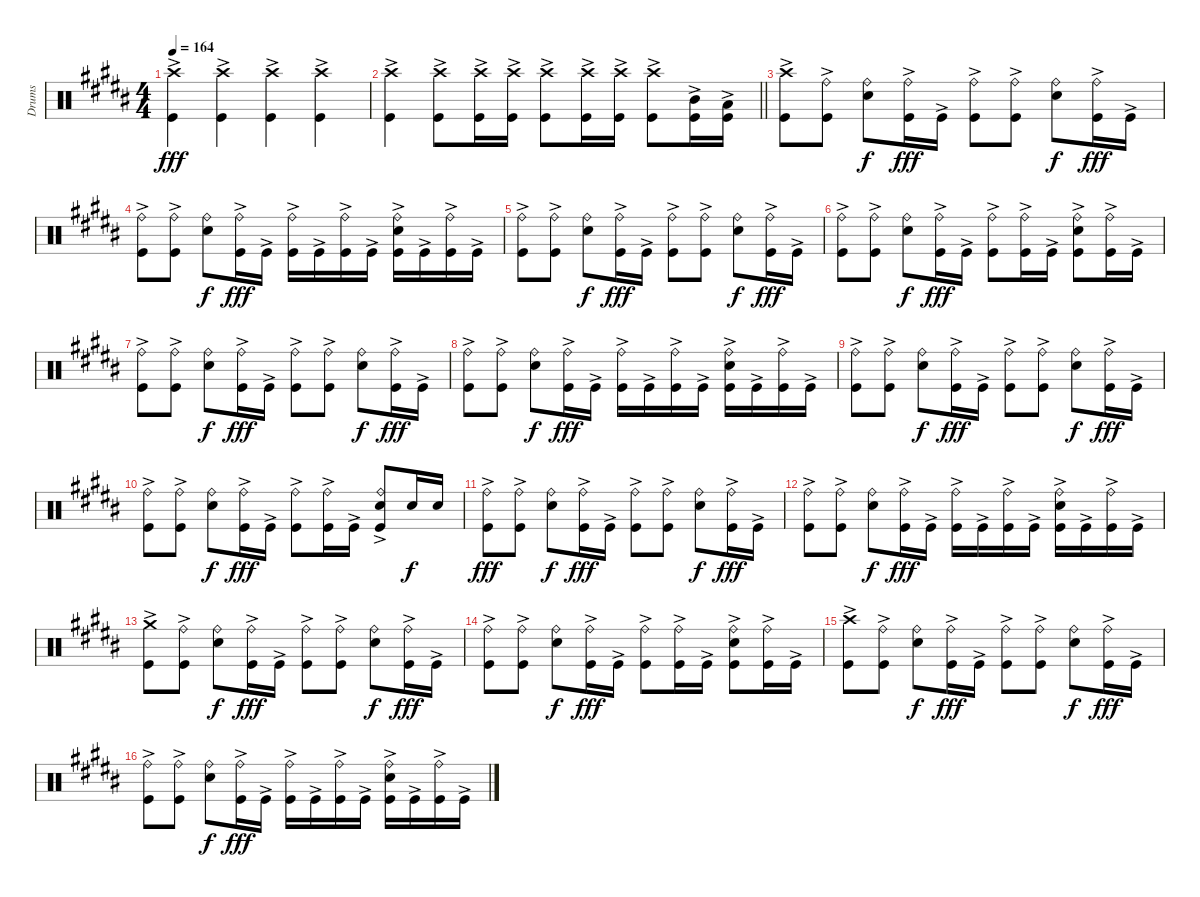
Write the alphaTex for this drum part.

\track ("Drums" "Drums") {instrument percussion}
\staff {score}
\articulation defaults
\ts (4 4)
\tempo 164
\clef neutral
\ks g#minor
("Crash high (hit)" "Kick (hit)"{ac}).4{dy fff} ("Crash high (hit)" "Kick (hit)"{ac}).4 ("Crash high (hit)" "Kick (hit)"{ac}).4 ("Crash high (hit)" "Kick (hit)"{ac}).4 |
\barLineRight lightlight
("Crash high (hit)" "Kick (hit)"{ac}).4 ("Crash high (hit)" "Kick (hit)"{ac}).8 ("Crash high (hit)" "Kick (hit)"{ac}).16 ("Crash high (hit)" "Kick (hit)"{ac}).16 ("Crash high (hit)" "Kick (hit)"{ac}).8 ("Crash high (hit)" "Kick (hit)"{ac}).16 ("Crash high (hit)" "Kick (hit)"{ac}).16 ("Crash high (hit)" "Kick (hit)"{ac}).8 ("Mid Tom (hit)"{ac} "Kick (hit)"{ac}).16 ("Low Tom (hit)"{ac} "Kick (hit)"{ac}).16 |
("Crash high (hit)" "Kick (hit)"{ac}).8 ("Ride (bell)" "Kick (hit)"{ac}).8 ("Ride (bell)" "Snare (hit) 2").8{dy f} ("Ride (bell)" "Kick (hit)"{ac}).16{dy fff} "Kick (hit)"{ac}.16 ("Ride (bell)" "Kick (hit)"{ac}).8 ("Ride (bell)" "Kick (hit)"{ac}).8 ("Ride (bell)" "Snare (hit) 2").8{dy f} ("Ride (bell)" "Kick (hit)"{ac}).16{dy fff} "Kick (hit)"{ac}.16 |
("Ride (bell)" "Kick (hit)"{ac}).8 ("Ride (bell)" "Kick (hit)"{ac}).8 ("Ride (bell)" "Snare (hit) 2").8{dy f} ("Ride (bell)" "Kick (hit)"{ac}).16{dy fff} "Kick (hit)"{ac}.16 ("Ride (bell)" "Kick (hit)"{ac}).16 "Kick (hit)"{ac}.16 ("Ride (bell)" "Kick (hit)"{ac}).16 "Kick (hit)"{ac}.16 ("Ride (bell)" "Snare (hit) 2" "Kick (hit)"{ac}).16 "Kick (hit)"{ac}.16 ("Ride (bell)" "Kick (hit)"{ac}).16 "Kick (hit)"{ac}.16 |
("Ride (bell)" "Kick (hit)"{ac}).8 ("Ride (bell)" "Kick (hit)"{ac}).8 ("Ride (bell)" "Snare (hit) 2").8{dy f} ("Ride (bell)" "Kick (hit)"{ac}).16{dy fff} "Kick (hit)"{ac}.16 ("Ride (bell)" "Kick (hit)"{ac}).8 ("Ride (bell)" "Kick (hit)"{ac}).8 ("Ride (bell)" "Snare (hit) 2").8{dy f} ("Ride (bell)" "Kick (hit)"{ac}).16{dy fff} "Kick (hit)"{ac}.16 |
("Ride (bell)" "Kick (hit)"{ac}).8 ("Ride (bell)" "Kick (hit)"{ac}).8 ("Ride (bell)" "Snare (hit) 2").8{dy f} ("Ride (bell)" "Kick (hit)"{ac}).16{dy fff} "Kick (hit)"{ac}.16 ("Ride (bell)" "Kick (hit)"{ac}).8 ("Ride (bell)" "Kick (hit)"{ac}).16 "Kick (hit)"{ac}.16 ("Ride (bell)" "Snare (hit) 2" "Kick (hit)"{ac}).8 ("Ride (bell)" "Kick (hit)"{ac}).16 "Kick (hit)"{ac}.16 |
("Ride (bell)" "Kick (hit)"{ac}).8 ("Ride (bell)" "Kick (hit)"{ac}).8 ("Ride (bell)" "Snare (hit) 2").8{dy f} ("Ride (bell)" "Kick (hit)"{ac}).16{dy fff} "Kick (hit)"{ac}.16 ("Ride (bell)" "Kick (hit)"{ac}).8 ("Ride (bell)" "Kick (hit)"{ac}).8 ("Ride (bell)" "Snare (hit) 2").8{dy f} ("Ride (bell)" "Kick (hit)"{ac}).16{dy fff} "Kick (hit)"{ac}.16 |
("Ride (bell)" "Kick (hit)"{ac}).8 ("Ride (bell)" "Kick (hit)"{ac}).8 ("Ride (bell)" "Snare (hit) 2").8{dy f} ("Ride (bell)" "Kick (hit)"{ac}).16{dy fff} "Kick (hit)"{ac}.16 ("Ride (bell)" "Kick (hit)"{ac}).16 "Kick (hit)"{ac}.16 ("Ride (bell)" "Kick (hit)"{ac}).16 "Kick (hit)"{ac}.16 ("Ride (bell)" "Snare (hit) 2" "Kick (hit)"{ac}).16 "Kick (hit)"{ac}.16 ("Ride (bell)" "Kick (hit)"{ac}).16 "Kick (hit)"{ac}.16 |
("Ride (bell)" "Kick (hit)"{ac}).8 ("Ride (bell)" "Kick (hit)"{ac}).8 ("Ride (bell)" "Snare (hit) 2").8{dy f} ("Ride (bell)" "Kick (hit)"{ac}).16{dy fff} "Kick (hit)"{ac}.16 ("Ride (bell)" "Kick (hit)"{ac}).8 ("Ride (bell)" "Kick (hit)"{ac}).8 ("Ride (bell)" "Snare (hit) 2").8{dy f} ("Ride (bell)" "Kick (hit)"{ac}).16{dy fff} "Kick (hit)"{ac}.16 |
("Ride (bell)" "Kick (hit)"{ac}).8 ("Ride (bell)" "Kick (hit)"{ac}).8 ("Ride (bell)" "Snare (hit) 2").8{dy f} ("Ride (bell)" "Kick (hit)"{ac}).16{dy fff} "Kick (hit)"{ac}.16 ("Ride (bell)" "Kick (hit)"{ac}).8 ("Ride (bell)" "Kick (hit)"{ac}).16 "Kick (hit)"{ac}.16 ("Ride (bell)" "Snare (hit) 2" "Kick (hit)"{ac}).8 "Snare (hit) 2".16{dy f} "Snare (hit) 2".16 |
("Ride (bell)" "Kick (hit)"{ac}).8{dy fff} ("Ride (bell)" "Kick (hit)"{ac}).8 ("Ride (bell)" "Snare (hit) 2").8{dy f} ("Ride (bell)" "Kick (hit)"{ac}).16{dy fff} "Kick (hit)"{ac}.16 ("Ride (bell)" "Kick (hit)"{ac}).8 ("Ride (bell)" "Kick (hit)"{ac}).8 ("Ride (bell)" "Snare (hit) 2").8{dy f} ("Ride (bell)" "Kick (hit)"{ac}).16{dy fff} "Kick (hit)"{ac}.16 |
("Ride (bell)" "Kick (hit)"{ac}).8 ("Ride (bell)" "Kick (hit)"{ac}).8 ("Ride (bell)" "Snare (hit) 2").8{dy f} ("Ride (bell)" "Kick (hit)"{ac}).16{dy fff} "Kick (hit)"{ac}.16 ("Ride (bell)" "Kick (hit)"{ac}).16 "Kick (hit)"{ac}.16 ("Ride (bell)" "Kick (hit)"{ac}).16 "Kick (hit)"{ac}.16 ("Ride (bell)" "Snare (hit) 2" "Kick (hit)"{ac}).16 "Kick (hit)"{ac}.16 ("Ride (bell)" "Kick (hit)"{ac}).16 "Kick (hit)"{ac}.16 |
("Crash medium (hit)" "Kick (hit)"{ac}).8 ("Ride (bell)" "Kick (hit)"{ac}).8 ("Ride (bell)" "Snare (hit) 2").8{dy f} ("Ride (bell)" "Kick (hit)"{ac}).16{dy fff} "Kick (hit)"{ac}.16 ("Ride (bell)" "Kick (hit)"{ac}).8 ("Ride (bell)" "Kick (hit)"{ac}).8 ("Ride (bell)" "Snare (hit) 2").8{dy f} ("Ride (bell)" "Kick (hit)"{ac}).16{dy fff} "Kick (hit)"{ac}.16 |
("Ride (bell)" "Kick (hit)"{ac}).8 ("Ride (bell)" "Kick (hit)"{ac}).8 ("Ride (bell)" "Snare (hit) 2").8{dy f} ("Ride (bell)" "Kick (hit)"{ac}).16{dy fff} "Kick (hit)"{ac}.16 ("Ride (bell)" "Kick (hit)"{ac}).8 ("Ride (bell)" "Kick (hit)"{ac}).16 "Kick (hit)"{ac}.16 ("Ride (bell)" "Snare (hit) 2" "Kick (hit)"{ac}).8 ("Ride (bell)" "Kick (hit)"{ac}).16 "Kick (hit)"{ac}.16 |
("Crash high (hit)" "Kick (hit)"{ac}).8 ("Ride (bell)" "Kick (hit)"{ac}).8 ("Ride (bell)" "Snare (hit) 2").8{dy f} ("Ride (bell)" "Kick (hit)"{ac}).16{dy fff} "Kick (hit)"{ac}.16 ("Ride (bell)" "Kick (hit)"{ac}).8 ("Ride (bell)" "Kick (hit)"{ac}).8 ("Ride (bell)" "Snare (hit) 2").8{dy f} ("Ride (bell)" "Kick (hit)"{ac}).16{dy fff} "Kick (hit)"{ac}.16 |
("Ride (bell)" "Kick (hit)"{ac}).8 ("Ride (bell)" "Kick (hit)"{ac}).8 ("Ride (bell)" "Snare (hit) 2").8{dy f} ("Ride (bell)" "Kick (hit)"{ac}).16{dy fff} "Kick (hit)"{ac}.16 ("Ride (bell)" "Kick (hit)"{ac}).16 "Kick (hit)"{ac}.16 ("Ride (bell)" "Kick (hit)"{ac}).16 "Kick (hit)"{ac}.16 ("Ride (bell)" "Snare (hit) 2" "Kick (hit)"{ac}).16 "Kick (hit)"{ac}.16 ("Ride (bell)" "Kick (hit)"{ac}).16 "Kick (hit)"{ac}.16
